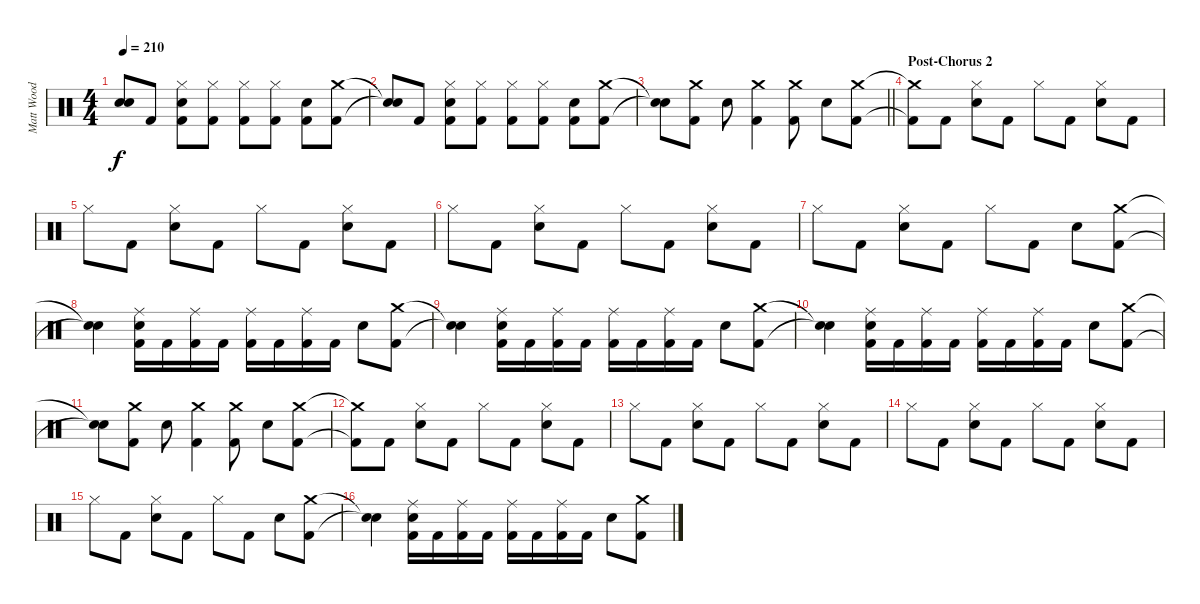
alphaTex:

\track ("Matt Wood" "Matt Wood") {instrument percussion}
\staff {score}
\articulation defaults
\ts (4 4)
\tempo 210
\clef neutral
\ks c
("Snare (hit)"{t} "Snare (hit)"{t}).8{dy f} "Kick (hit) 2".8 ("Hi-Hat (closed)" "Snare (hit) 2" "Kick (hit) 2").8 ("Hi-Hat (closed)" "Kick (hit) 2").8 ("Hi-Hat (closed)" "Kick (hit) 2").8 ("Hi-Hat (closed)" "Kick (hit) 2").8 ("Snare (hit) 2" "Kick (hit) 2").8 ("Crash medium (hit)" "Kick (hit) 2").8 |
("Snare (hit)"{t} "Snare (hit)"{t}).8 "Kick (hit) 2".8 ("Hi-Hat (closed)" "Snare (hit) 2" "Kick (hit) 2").8 ("Hi-Hat (closed)" "Kick (hit) 2").8 ("Hi-Hat (closed)" "Kick (hit) 2").8 ("Hi-Hat (closed)" "Kick (hit) 2").8 ("Snare (hit) 2" "Kick (hit) 2").8 ("Crash medium (hit)" "Kick (hit) 2").8 |
\barLineRight lightlight
("Snare (hit)"{t} "Snare (hit)"{t}).8 ("Crash medium (hit)" "Kick (hit) 2").8 "Snare (hit) 2".8 ("Crash medium (hit)" "Kick (hit) 2").4 ("Crash medium (hit)" "Kick (hit) 2").8 "Snare (hit) 2".8 ("Crash medium (hit)" "Kick (hit) 2").8 |
\section ("" "Post-Chorus 2")
("Crash medium (hit)"{t} "Kick (hit) 2"{t}).8 "Kick (hit) 2".8 ("Hi-Hat (closed)" "Snare (hit) 2").8 "Kick (hit) 2".8 "Hi-Hat (closed)".8 "Kick (hit) 2".8 ("Hi-Hat (closed)" "Snare (hit) 2").8 "Kick (hit) 2".8 |
"Hi-Hat (closed)".8 "Kick (hit) 2".8 ("Hi-Hat (closed)" "Snare (hit) 2").8 "Kick (hit) 2".8 "Hi-Hat (closed)".8 "Kick (hit) 2".8 ("Hi-Hat (closed)" "Snare (hit) 2").8 "Kick (hit) 2".8 |
"Hi-Hat (closed)".8 "Kick (hit) 2".8 ("Hi-Hat (closed)" "Snare (hit) 2").8 "Kick (hit) 2".8 "Hi-Hat (closed)".8 "Kick (hit) 2".8 ("Hi-Hat (closed)" "Snare (hit) 2").8 "Kick (hit) 2".8 |
"Hi-Hat (closed)".8 "Kick (hit) 2".8 ("Hi-Hat (closed)" "Snare (hit) 2").8 "Kick (hit) 2".8 "Hi-Hat (closed)".8 "Kick (hit) 2".8 "Snare (hit) 2".8 ("Crash medium (hit)" "Kick (hit) 2").8 |
("Snare (hit)"{t} "Snare (hit)"{t}).4 ("Ride (middle)" "Snare (hit) 2" "Kick (hit) 2").16 "Kick (hit) 2".16 ("Ride (middle)" "Kick (hit) 2").16 "Kick (hit) 2".16 ("Ride (middle)" "Kick (hit) 2").16 "Kick (hit) 2".16 ("Ride (middle)" "Kick (hit) 2").16 "Kick (hit) 2".16 "Snare (hit) 2".8 ("Crash medium (hit)" "Kick (hit) 2").8 |
("Snare (hit)"{t} "Snare (hit)"{t}).4 ("Ride (middle)" "Snare (hit) 2" "Kick (hit) 2").16 "Kick (hit) 2".16 ("Ride (middle)" "Kick (hit) 2").16 "Kick (hit) 2".16 ("Ride (middle)" "Kick (hit) 2").16 "Kick (hit) 2".16 ("Ride (middle)" "Kick (hit) 2").16 "Kick (hit) 2".16 "Snare (hit) 2".8 ("Crash medium (hit)" "Kick (hit) 2").8 |
("Snare (hit)"{t} "Snare (hit)"{t}).4 ("Ride (middle)" "Snare (hit) 2" "Kick (hit) 2").16 "Kick (hit) 2".16 ("Ride (middle)" "Kick (hit) 2").16 "Kick (hit) 2".16 ("Ride (middle)" "Kick (hit) 2").16 "Kick (hit) 2".16 ("Ride (middle)" "Kick (hit) 2").16 "Kick (hit) 2".16 "Snare (hit) 2".8 ("Crash medium (hit)" "Kick (hit) 2").8 |
("Snare (hit)"{t} "Snare (hit)"{t}).8 ("Crash medium (hit)" "Kick (hit) 2").8 "Snare (hit) 2".8 ("Crash medium (hit)" "Kick (hit) 2").4 ("Crash medium (hit)" "Kick (hit) 2").8 "Snare (hit) 2".8 ("Crash medium (hit)" "Kick (hit) 2").8 |
("Crash medium (hit)"{t} "Kick (hit) 2"{t}).8 "Kick (hit) 2".8 ("Hi-Hat (closed)" "Snare (hit) 2").8 "Kick (hit) 2".8 "Hi-Hat (closed)".8 "Kick (hit) 2".8 ("Hi-Hat (closed)" "Snare (hit) 2").8 "Kick (hit) 2".8 |
"Hi-Hat (closed)".8 "Kick (hit) 2".8 ("Hi-Hat (closed)" "Snare (hit) 2").8 "Kick (hit) 2".8 "Hi-Hat (closed)".8 "Kick (hit) 2".8 ("Hi-Hat (closed)" "Snare (hit) 2").8 "Kick (hit) 2".8 |
"Hi-Hat (closed)".8 "Kick (hit) 2".8 ("Hi-Hat (closed)" "Snare (hit) 2").8 "Kick (hit) 2".8 "Hi-Hat (closed)".8 "Kick (hit) 2".8 ("Hi-Hat (closed)" "Snare (hit) 2").8 "Kick (hit) 2".8 |
"Hi-Hat (closed)".8 "Kick (hit) 2".8 ("Hi-Hat (closed)" "Snare (hit) 2").8 "Kick (hit) 2".8 "Hi-Hat (closed)".8 "Kick (hit) 2".8 "Snare (hit) 2".8 ("Crash medium (hit)" "Kick (hit) 2").8 |
("Snare (hit)"{t} "Snare (hit)"{t}).4 ("Ride (middle)" "Snare (hit) 2" "Kick (hit) 2").16 "Kick (hit) 2".16 ("Ride (middle)" "Kick (hit) 2").16 "Kick (hit) 2".16 ("Ride (middle)" "Kick (hit) 2").16 "Kick (hit) 2".16 ("Ride (middle)" "Kick (hit) 2").16 "Kick (hit) 2".16 "Snare (hit) 2".8 ("Crash medium (hit)" "Kick (hit) 2").8
